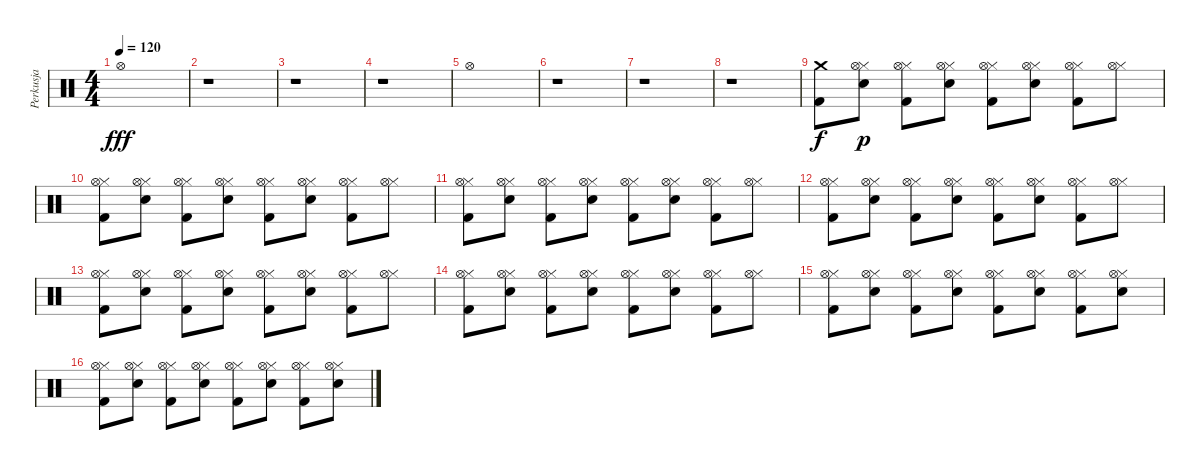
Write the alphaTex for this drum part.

\track ("Perkusja" "Perkusja") {instrument percussion}
\staff {score}
\articulation defaults
\ts (4 4)
\tempo 120
\clef neutral
\ks c "Hi-Hat (open)".1{dy fff}
|
r.1 |
r.1 |
r.1 |
"Hi-Hat (open)".1 |
r.1 |
r.1 |
r.1 |
("Kick (hit) 2" "Crash medium (hit)").8{dy f} ("Electric Snare (hit)" "Hi-Hat (closed)" "Hi-Hat (open)").8{dy p} ("Kick (hit) 2" "Hi-Hat (closed)" "Hi-Hat (open)").8 ("Electric Snare (hit)" "Hi-Hat (closed)" "Hi-Hat (open)").8 ("Kick (hit) 2" "Hi-Hat (closed)" "Hi-Hat (open)").8 ("Electric Snare (hit)" "Hi-Hat (closed)" "Hi-Hat (open)").8 ("Kick (hit) 2" "Hi-Hat (closed)" "Hi-Hat (open)").8 ("Hi-Hat (closed)" "Hi-Hat (open)").8 |
("Kick (hit) 2" "Hi-Hat (closed)" "Hi-Hat (open)").8 ("Electric Snare (hit)" "Hi-Hat (closed)" "Hi-Hat (open)").8 ("Kick (hit) 2" "Hi-Hat (closed)" "Hi-Hat (open)").8 ("Electric Snare (hit)" "Hi-Hat (closed)" "Hi-Hat (open)").8 ("Kick (hit) 2" "Hi-Hat (closed)" "Hi-Hat (open)").8 ("Electric Snare (hit)" "Hi-Hat (closed)" "Hi-Hat (open)").8 ("Kick (hit) 2" "Hi-Hat (closed)" "Hi-Hat (open)").8 ("Hi-Hat (closed)" "Hi-Hat (open)").8 |
("Kick (hit) 2" "Hi-Hat (closed)" "Hi-Hat (open)").8 ("Electric Snare (hit)" "Hi-Hat (closed)" "Hi-Hat (open)").8 ("Kick (hit) 2" "Hi-Hat (closed)" "Hi-Hat (open)").8 ("Electric Snare (hit)" "Hi-Hat (closed)" "Hi-Hat (open)").8 ("Kick (hit) 2" "Hi-Hat (closed)" "Hi-Hat (open)").8 ("Electric Snare (hit)" "Hi-Hat (closed)" "Hi-Hat (open)").8 ("Kick (hit) 2" "Hi-Hat (closed)" "Hi-Hat (open)").8 ("Hi-Hat (closed)" "Hi-Hat (open)").8 |
("Kick (hit) 2" "Hi-Hat (closed)" "Hi-Hat (open)").8 ("Electric Snare (hit)" "Hi-Hat (closed)" "Hi-Hat (open)").8 ("Kick (hit) 2" "Hi-Hat (closed)" "Hi-Hat (open)").8 ("Electric Snare (hit)" "Hi-Hat (closed)" "Hi-Hat (open)").8 ("Kick (hit) 2" "Hi-Hat (closed)" "Hi-Hat (open)").8 ("Electric Snare (hit)" "Hi-Hat (closed)" "Hi-Hat (open)").8 ("Kick (hit) 2" "Hi-Hat (closed)" "Hi-Hat (open)").8 ("Hi-Hat (closed)" "Hi-Hat (open)").8 |
("Kick (hit) 2" "Hi-Hat (closed)" "Hi-Hat (open)").8 ("Electric Snare (hit)" "Hi-Hat (closed)" "Hi-Hat (open)").8 ("Kick (hit) 2" "Hi-Hat (closed)" "Hi-Hat (open)").8 ("Electric Snare (hit)" "Hi-Hat (closed)" "Hi-Hat (open)").8 ("Kick (hit) 2" "Hi-Hat (closed)" "Hi-Hat (open)").8 ("Electric Snare (hit)" "Hi-Hat (closed)" "Hi-Hat (open)").8 ("Kick (hit) 2" "Hi-Hat (closed)" "Hi-Hat (open)").8 ("Hi-Hat (closed)" "Hi-Hat (open)").8 |
("Kick (hit) 2" "Hi-Hat (closed)" "Hi-Hat (open)").8 ("Electric Snare (hit)" "Hi-Hat (closed)" "Hi-Hat (open)").8 ("Kick (hit) 2" "Hi-Hat (closed)" "Hi-Hat (open)").8 ("Electric Snare (hit)" "Hi-Hat (closed)" "Hi-Hat (open)").8 ("Kick (hit) 2" "Hi-Hat (closed)" "Hi-Hat (open)").8 ("Electric Snare (hit)" "Hi-Hat (closed)" "Hi-Hat (open)").8 ("Kick (hit) 2" "Hi-Hat (closed)" "Hi-Hat (open)").8 ("Hi-Hat (closed)" "Hi-Hat (open)").8 |
("Kick (hit) 2" "Hi-Hat (closed)" "Hi-Hat (open)").8 ("Electric Snare (hit)" "Hi-Hat (closed)" "Hi-Hat (open)").8 ("Kick (hit) 2" "Hi-Hat (closed)" "Hi-Hat (open)").8 ("Electric Snare (hit)" "Hi-Hat (closed)" "Hi-Hat (open)").8 ("Kick (hit) 2" "Hi-Hat (closed)" "Hi-Hat (open)").8 ("Electric Snare (hit)" "Hi-Hat (closed)" "Hi-Hat (open)").8 ("Kick (hit) 2" "Hi-Hat (closed)" "Hi-Hat (open)").8 ("Electric Snare (hit)" "Hi-Hat (closed)" "Hi-Hat (open)").8 |
("Kick (hit) 2" "Hi-Hat (closed)" "Hi-Hat (open)").8 ("Electric Snare (hit)" "Hi-Hat (closed)" "Hi-Hat (open)").8 ("Kick (hit) 2" "Hi-Hat (closed)" "Hi-Hat (open)").8 ("Electric Snare (hit)" "Hi-Hat (closed)" "Hi-Hat (open)").8 ("Kick (hit) 2" "Hi-Hat (closed)" "Hi-Hat (open)").8 ("Electric Snare (hit)" "Hi-Hat (closed)" "Hi-Hat (open)").8 ("Kick (hit) 2" "Hi-Hat (closed)" "Hi-Hat (open)").8 ("Electric Snare (hit)" "Hi-Hat (closed)" "Hi-Hat (open)").8
